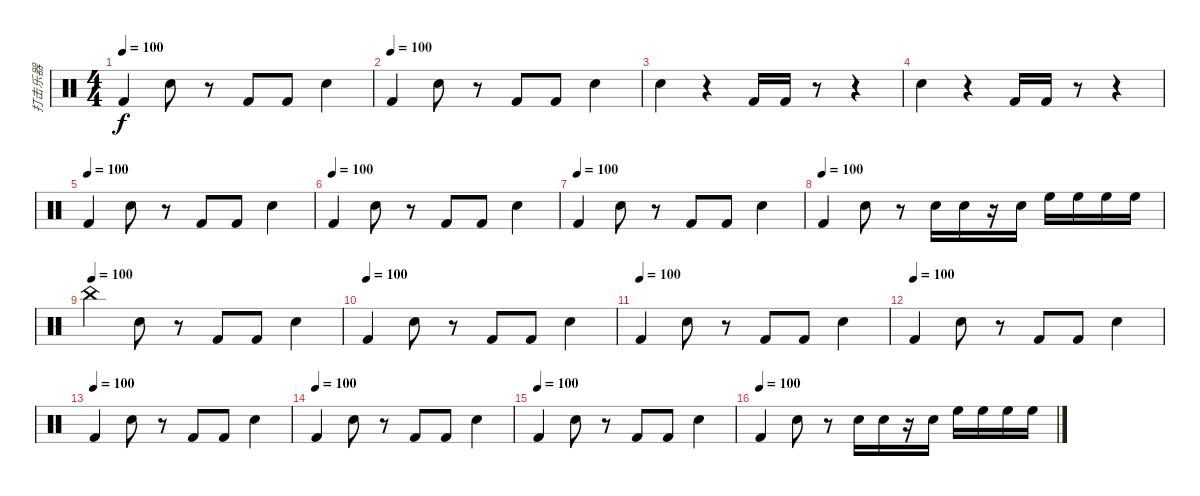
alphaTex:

\track ("打击乐器" "打击乐器") {instrument percussion}
\staff {score}
\articulation defaults
\ts (4 4)
\tempo 100
\clef neutral
\ks c "Kick (hit) 2".4{dy f} "Snare (hit) 2".8
r.8 "Kick (hit) 2".8 "Kick (hit) 2".8 "Snare (hit) 2".4 |
\tempo (100)
"Kick (hit) 2".4 "Snare (hit) 2".8 r.8 "Kick (hit) 2".8 "Kick (hit) 2".8 "Snare (hit) 2".4 |
"Snare (hit) 2".4 r.4 "Kick (hit) 2".16 "Kick (hit) 2".16 r.8 r.4 |
"Snare (hit) 2".4 r.4 "Kick (hit) 2".16 "Kick (hit) 2".16 r.8 r.4 |
\tempo (100)
"Kick (hit) 2".4 "Snare (hit) 2".8 r.8 "Kick (hit) 2".8 "Kick (hit) 2".8 "Snare (hit) 2".4 |
\tempo (100)
"Kick (hit) 2".4 "Snare (hit) 2".8 r.8 "Kick (hit) 2".8 "Kick (hit) 2".8 "Snare (hit) 2".4 |
\tempo (100)
"Kick (hit) 2".4 "Snare (hit) 2".8 r.8 "Kick (hit) 2".8 "Kick (hit) 2".8 "Snare (hit) 2".4 |
\tempo (100)
"Kick (hit) 2".4 "Snare (hit) 2".8 r.8 "Snare (hit) 2".16 "Snare (hit) 2".16 r.16 "Snare (hit) 2".16 "High Floor Tom (hit)".16 "High Floor Tom (hit)".16 "High Floor Tom (hit)".16 "High Floor Tom (hit)".16 |
\tempo (100)
"China (hit)".4 "Snare (hit) 2".8 r.8 "Kick (hit) 2".8 "Kick (hit) 2".8 "Snare (hit) 2".4 |
\tempo (100)
"Kick (hit) 2".4 "Snare (hit) 2".8 r.8 "Kick (hit) 2".8 "Kick (hit) 2".8 "Snare (hit) 2".4 |
\tempo (100)
"Kick (hit) 2".4 "Snare (hit) 2".8 r.8 "Kick (hit) 2".8 "Kick (hit) 2".8 "Snare (hit) 2".4 |
\tempo (100)
"Kick (hit) 2".4 "Snare (hit) 2".8 r.8 "Kick (hit) 2".8 "Kick (hit) 2".8 "Snare (hit) 2".4 |
\tempo (100)
"Kick (hit) 2".4 "Snare (hit) 2".8 r.8 "Kick (hit) 2".8 "Kick (hit) 2".8 "Snare (hit) 2".4 |
\tempo (100)
"Kick (hit) 2".4 "Snare (hit) 2".8 r.8 "Kick (hit) 2".8 "Kick (hit) 2".8 "Snare (hit) 2".4 |
\tempo (100)
"Kick (hit) 2".4 "Snare (hit) 2".8 r.8 "Kick (hit) 2".8 "Kick (hit) 2".8 "Snare (hit) 2".4 |
\tempo (100)
"Kick (hit) 2".4 "Snare (hit) 2".8 r.8 "Snare (hit) 2".16 "Snare (hit) 2".16 r.16 "Snare (hit) 2".16 "High Floor Tom (hit)".16 "High Floor Tom (hit)".16 "High Floor Tom (hit)".16 "High Floor Tom (hit)".16
